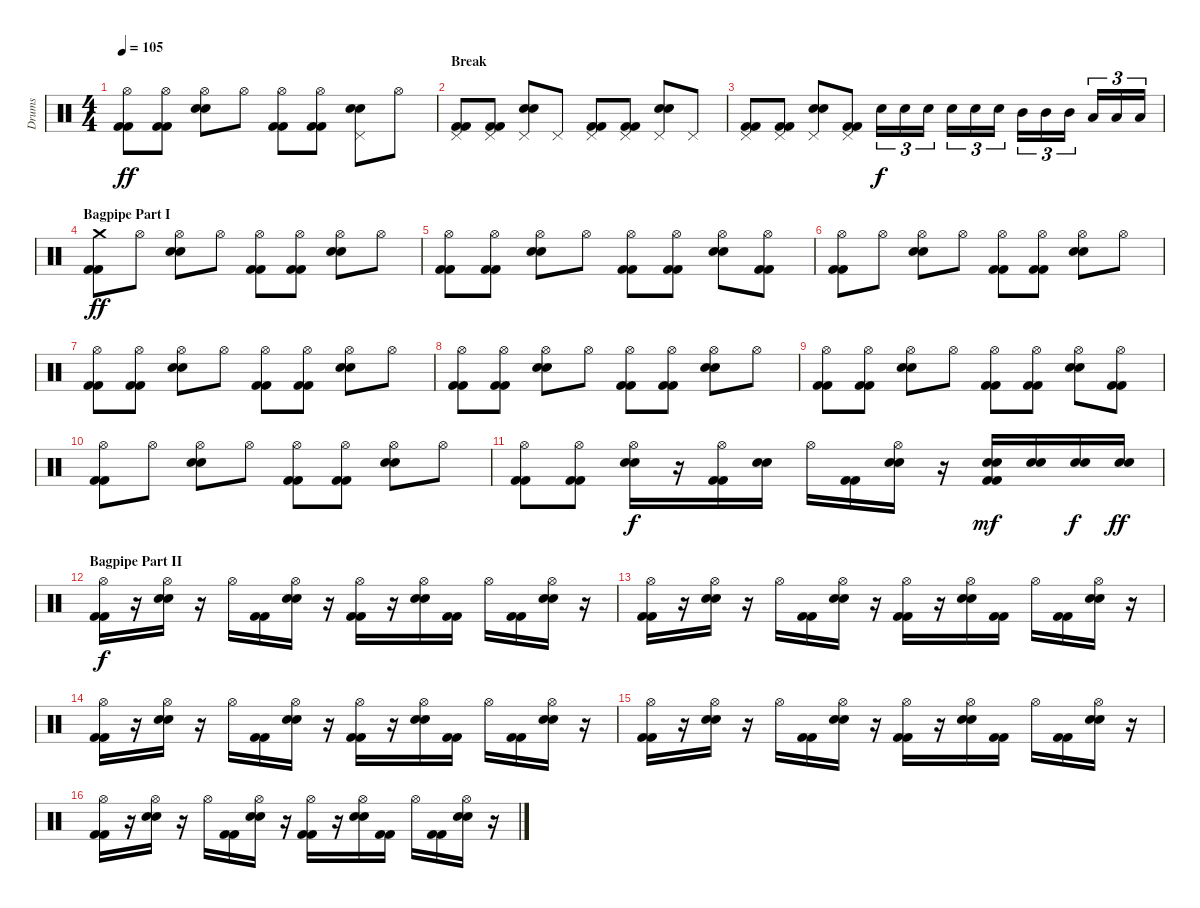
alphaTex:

\track ("Drums" "Drums") {instrument percussion}
\staff {score}
\articulation defaults
\ts (4 4)
\tempo 105
\clef neutral
\ks c
("Hi-Hat (open)" "Kick (hit) 2" "Kick (hit) 2").8{dy ff} ("Hi-Hat (open)" "Kick (hit) 2" "Kick (hit) 2").8 ("Hi-Hat (open)" "Electric Snare (hit)" "Snare (hit) 2").8 "Hi-Hat (open)".8 ("Hi-Hat (open)" "Kick (hit) 2" "Kick (hit) 2").8 ("Hi-Hat (open)" "Kick (hit) 2" "Kick (hit) 2").8 ("Pedal Hi-Hat (hit)" "Electric Snare (hit)" "Snare (hit) 2").8 "Hi-Hat (open)".8 |
\section ("" "Break")
("Pedal Hi-Hat (hit)" "Kick (hit) 2" "Kick (hit) 2").8 ("Pedal Hi-Hat (hit)" "Kick (hit) 2" "Kick (hit) 2").8 ("Pedal Hi-Hat (hit)" "Electric Snare (hit)" "Snare (hit) 2").8 "Pedal Hi-Hat (hit)".8 ("Pedal Hi-Hat (hit)" "Kick (hit) 2" "Kick (hit) 2").8 ("Pedal Hi-Hat (hit)" "Kick (hit) 2" "Kick (hit) 2").8 ("Pedal Hi-Hat (hit)" "Electric Snare (hit)" "Snare (hit) 2").8 "Pedal Hi-Hat (hit)".8 |
("Pedal Hi-Hat (hit)" "Kick (hit) 2" "Kick (hit) 2").8 ("Pedal Hi-Hat (hit)" "Kick (hit) 2" "Kick (hit) 2").8 ("Pedal Hi-Hat (hit)" "Electric Snare (hit)" "Snare (hit) 2").8 ("Pedal Hi-Hat (hit)" "Kick (hit) 2" "Kick (hit) 2").8 "Electric Snare (hit)".16{tu (3 2) dy f} "Electric Snare (hit)".16{tu (3 2)} "Electric Snare (hit)".16{tu (3 2)} "Electric Snare (hit)".16{tu (3 2)} "Electric Snare (hit)".16{tu (3 2)} "Electric Snare (hit)".16{tu (3 2)} "Mid Tom (hit)".16{tu (3 2)} "Mid Tom (hit)".16{tu (3 2)} "Mid Tom (hit)".16{tu (3 2)} "Low Tom (hit)".16{tu (3 2)} "Low Tom (hit)".16{tu (3 2)} "Low Tom (hit)".16{tu (3 2)} |
\section ("" "Bagpipe Part I")
("Crash medium (hit)" "Kick (hit) 2" "Kick (hit) 2").8{dy ff} "Hi-Hat (open)".8 ("Hi-Hat (open)" "Electric Snare (hit)" "Snare (hit) 2").8 "Hi-Hat (open)".8 ("Hi-Hat (open)" "Kick (hit) 2" "Kick (hit) 2").8 ("Hi-Hat (open)" "Kick (hit) 2" "Kick (hit) 2").8 ("Hi-Hat (open)" "Electric Snare (hit)" "Snare (hit) 2").8 "Hi-Hat (open)".8 |
("Hi-Hat (open)" "Kick (hit) 2" "Kick (hit) 2").8 ("Hi-Hat (open)" "Kick (hit) 2" "Kick (hit) 2").8 ("Hi-Hat (open)" "Electric Snare (hit)" "Snare (hit) 2").8 "Hi-Hat (open)".8 ("Hi-Hat (open)" "Kick (hit) 2" "Kick (hit) 2").8 ("Hi-Hat (open)" "Kick (hit) 2" "Kick (hit) 2").8 ("Hi-Hat (open)" "Electric Snare (hit)" "Snare (hit) 2").8 ("Hi-Hat (open)" "Kick (hit) 2" "Kick (hit) 2").8 |
("Hi-Hat (open)" "Kick (hit) 2" "Kick (hit) 2").8 "Hi-Hat (open)".8 ("Hi-Hat (open)" "Electric Snare (hit)" "Snare (hit) 2").8 "Hi-Hat (open)".8 ("Hi-Hat (open)" "Kick (hit) 2" "Kick (hit) 2").8 ("Hi-Hat (open)" "Kick (hit) 2" "Kick (hit) 2").8 ("Hi-Hat (open)" "Electric Snare (hit)" "Snare (hit) 2").8 "Hi-Hat (open)".8 |
("Hi-Hat (open)" "Kick (hit) 2" "Kick (hit) 2").8 ("Hi-Hat (open)" "Kick (hit) 2" "Kick (hit) 2").8 ("Hi-Hat (open)" "Electric Snare (hit)" "Snare (hit) 2").8 "Hi-Hat (open)".8 ("Hi-Hat (open)" "Kick (hit) 2" "Kick (hit) 2").8 ("Hi-Hat (open)" "Kick (hit) 2" "Kick (hit) 2").8 ("Hi-Hat (open)" "Electric Snare (hit)" "Snare (hit) 2").8 "Hi-Hat (open)".8 |
("Hi-Hat (open)" "Kick (hit) 2" "Kick (hit) 2").8 ("Hi-Hat (open)" "Kick (hit) 2" "Kick (hit) 2").8 ("Hi-Hat (open)" "Electric Snare (hit)" "Snare (hit) 2").8 "Hi-Hat (open)".8 ("Hi-Hat (open)" "Kick (hit) 2" "Kick (hit) 2").8 ("Hi-Hat (open)" "Kick (hit) 2" "Kick (hit) 2").8 ("Hi-Hat (open)" "Electric Snare (hit)" "Snare (hit) 2").8 "Hi-Hat (open)".8 |
("Hi-Hat (open)" "Kick (hit) 2" "Kick (hit) 2").8 ("Hi-Hat (open)" "Kick (hit) 2" "Kick (hit) 2").8 ("Hi-Hat (open)" "Electric Snare (hit)" "Snare (hit) 2").8 "Hi-Hat (open)".8 ("Hi-Hat (open)" "Kick (hit) 2" "Kick (hit) 2").8 ("Hi-Hat (open)" "Kick (hit) 2" "Kick (hit) 2").8 ("Hi-Hat (open)" "Electric Snare (hit)" "Snare (hit) 2").8 ("Hi-Hat (open)" "Kick (hit) 2" "Kick (hit) 2").8 |
("Hi-Hat (open)" "Kick (hit) 2" "Kick (hit) 2").8 "Hi-Hat (open)".8 ("Hi-Hat (open)" "Electric Snare (hit)" "Snare (hit) 2").8 "Hi-Hat (open)".8 ("Hi-Hat (open)" "Kick (hit) 2" "Kick (hit) 2").8 ("Hi-Hat (open)" "Kick (hit) 2" "Kick (hit) 2").8 ("Hi-Hat (open)" "Electric Snare (hit)" "Snare (hit) 2").8 "Hi-Hat (open)".8 |
("Hi-Hat (open)" "Kick (hit) 2" "Kick (hit) 2").8 ("Hi-Hat (open)" "Kick (hit) 2" "Kick (hit) 2").8 ("Hi-Hat (open)" "Electric Snare (hit)" "Snare (hit) 2").16{dy f} r.16 ("Hi-Hat (open)" "Kick (hit) 2" "Kick (hit) 2").16 ("Electric Snare (hit)" "Snare (hit) 2").16 "Hi-Hat (open)".16 ("Kick (hit) 2" "Kick (hit) 2").16 ("Hi-Hat (open)" "Electric Snare (hit)" "Snare (hit) 2").16 r.16 ("Electric Snare (hit)" "Snare (hit) 2" "Kick (hit) 2" "Kick (hit) 2").16{dy mf} ("Electric Snare (hit)" "Snare (hit) 2").16 ("Electric Snare (hit)" "Snare (hit) 2").16{dy f} ("Electric Snare (hit)" "Snare (hit) 2").16{dy ff} |
\section ("" "Bagpipe Part II")
("Hi-Hat (open)" "Kick (hit) 2" "Kick (hit) 2").16{dy f} r.16 ("Hi-Hat (open)" "Electric Snare (hit)" "Snare (hit) 2").16 r.16 "Hi-Hat (open)".16 ("Kick (hit) 2" "Kick (hit) 2").16 ("Hi-Hat (open)" "Electric Snare (hit)" "Snare (hit) 2").16 r.16 ("Hi-Hat (open)" "Kick (hit) 2" "Kick (hit) 2").16 r.16 ("Hi-Hat (open)" "Electric Snare (hit)" "Snare (hit) 2").16 ("Kick (hit) 2" "Kick (hit) 2").16 "Hi-Hat (open)".16 ("Kick (hit) 2" "Kick (hit) 2").16 ("Hi-Hat (open)" "Electric Snare (hit)" "Snare (hit) 2").16 r.16 |
("Hi-Hat (open)" "Kick (hit) 2" "Kick (hit) 2").16 r.16 ("Hi-Hat (open)" "Electric Snare (hit)" "Snare (hit) 2").16 r.16 "Hi-Hat (open)".16 ("Kick (hit) 2" "Kick (hit) 2").16 ("Hi-Hat (open)" "Electric Snare (hit)" "Snare (hit) 2").16 r.16 ("Hi-Hat (open)" "Kick (hit) 2" "Kick (hit) 2").16 r.16 ("Hi-Hat (open)" "Electric Snare (hit)" "Snare (hit) 2").16 ("Kick (hit) 2" "Kick (hit) 2").16 "Hi-Hat (open)".16 ("Kick (hit) 2" "Kick (hit) 2").16 ("Hi-Hat (open)" "Electric Snare (hit)" "Snare (hit) 2").16 r.16 |
("Hi-Hat (open)" "Kick (hit) 2" "Kick (hit) 2").16 r.16 ("Hi-Hat (open)" "Electric Snare (hit)" "Snare (hit) 2").16 r.16 "Hi-Hat (open)".16 ("Kick (hit) 2" "Kick (hit) 2").16 ("Hi-Hat (open)" "Electric Snare (hit)" "Snare (hit) 2").16 r.16 ("Hi-Hat (open)" "Kick (hit) 2" "Kick (hit) 2").16 r.16 ("Hi-Hat (open)" "Electric Snare (hit)" "Snare (hit) 2").16 ("Kick (hit) 2" "Kick (hit) 2").16 "Hi-Hat (open)".16 ("Kick (hit) 2" "Kick (hit) 2").16 ("Hi-Hat (open)" "Electric Snare (hit)" "Snare (hit) 2").16 r.16 |
("Hi-Hat (open)" "Kick (hit) 2" "Kick (hit) 2").16 r.16 ("Hi-Hat (open)" "Electric Snare (hit)" "Snare (hit) 2").16 r.16 "Hi-Hat (open)".16 ("Kick (hit) 2" "Kick (hit) 2").16 ("Hi-Hat (open)" "Electric Snare (hit)" "Snare (hit) 2").16 r.16 ("Hi-Hat (open)" "Kick (hit) 2" "Kick (hit) 2").16 r.16 ("Hi-Hat (open)" "Electric Snare (hit)" "Snare (hit) 2").16 ("Kick (hit) 2" "Kick (hit) 2").16 "Hi-Hat (open)".16 ("Kick (hit) 2" "Kick (hit) 2").16 ("Hi-Hat (open)" "Electric Snare (hit)" "Snare (hit) 2").16 r.16 |
("Hi-Hat (open)" "Kick (hit) 2" "Kick (hit) 2").16 r.16 ("Hi-Hat (open)" "Electric Snare (hit)" "Snare (hit) 2").16 r.16 "Hi-Hat (open)".16 ("Kick (hit) 2" "Kick (hit) 2").16 ("Hi-Hat (open)" "Electric Snare (hit)" "Snare (hit) 2").16 r.16 ("Hi-Hat (open)" "Kick (hit) 2" "Kick (hit) 2").16 r.16 ("Hi-Hat (open)" "Electric Snare (hit)" "Snare (hit) 2").16 ("Kick (hit) 2" "Kick (hit) 2").16 "Hi-Hat (open)".16 ("Kick (hit) 2" "Kick (hit) 2").16 ("Hi-Hat (open)" "Electric Snare (hit)" "Snare (hit) 2").16 r.16
